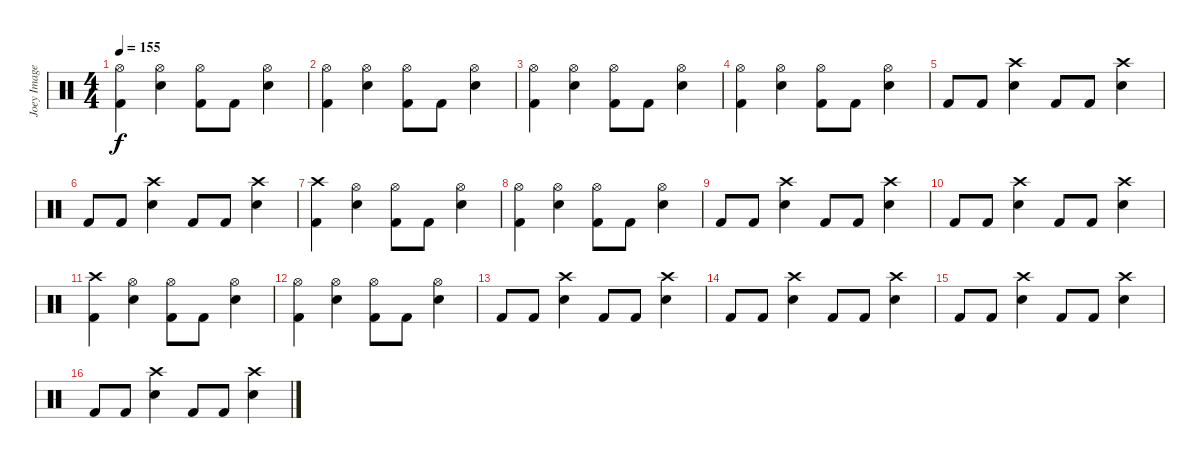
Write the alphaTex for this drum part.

\track ("Joey Image" "Joey Image") {instrument percussion}
\staff {score}
\articulation defaults
\ts (4 4)
\tempo 155
\clef neutral
\ks c
("Hi-Hat (open)" "Kick (hit) 2").4{dy f} ("Hi-Hat (open)" "Snare (hit) 2").4 ("Hi-Hat (open)" "Kick (hit) 2").8 "Kick (hit) 2".8 ("Hi-Hat (open)" "Snare (hit) 2").4 |
("Hi-Hat (open)" "Kick (hit) 2").4 ("Hi-Hat (open)" "Snare (hit) 2").4 ("Hi-Hat (open)" "Kick (hit) 2").8 "Kick (hit) 2".8 ("Hi-Hat (open)" "Snare (hit) 2").4 |
("Hi-Hat (open)" "Kick (hit) 2").4 ("Hi-Hat (open)" "Snare (hit) 2").4 ("Hi-Hat (open)" "Kick (hit) 2").8 "Kick (hit) 2".8 ("Hi-Hat (open)" "Snare (hit) 2").4 |
("Hi-Hat (open)" "Kick (hit) 2").4 ("Hi-Hat (open)" "Snare (hit) 2").4 ("Hi-Hat (open)" "Kick (hit) 2").8 "Kick (hit) 2".8 ("Hi-Hat (open)" "Snare (hit) 2").4 |
"Kick (hit) 2".8 "Kick (hit) 2".8 ("Crash high (hit)" "Snare (hit) 2").4 "Kick (hit) 2".8 "Kick (hit) 2".8 ("Crash high (hit)" "Snare (hit) 2").4 |
"Kick (hit) 2".8 "Kick (hit) 2".8 ("Crash high (hit)" "Snare (hit) 2").4 "Kick (hit) 2".8 "Kick (hit) 2".8 ("Crash high (hit)" "Snare (hit) 2").4 |
("Crash high (hit)" "Kick (hit) 2").4 ("Hi-Hat (open)" "Snare (hit) 2").4 ("Hi-Hat (open)" "Kick (hit) 2").8 "Kick (hit) 2".8 ("Hi-Hat (open)" "Snare (hit) 2").4 |
("Hi-Hat (open)" "Kick (hit) 2").4 ("Hi-Hat (open)" "Snare (hit) 2").4 ("Hi-Hat (open)" "Kick (hit) 2").8 "Kick (hit) 2".8 ("Hi-Hat (open)" "Snare (hit) 2").4 |
"Kick (hit) 2".8 "Kick (hit) 2".8 ("Crash high (hit)" "Snare (hit) 2").4 "Kick (hit) 2".8 "Kick (hit) 2".8 ("Crash high (hit)" "Snare (hit) 2").4 |
"Kick (hit) 2".8 "Kick (hit) 2".8 ("Crash high (hit)" "Snare (hit) 2").4 "Kick (hit) 2".8 "Kick (hit) 2".8 ("Crash high (hit)" "Snare (hit) 2").4 |
("Crash high (hit)" "Kick (hit) 2").4 ("Hi-Hat (open)" "Snare (hit) 2").4 ("Hi-Hat (open)" "Kick (hit) 2").8 "Kick (hit) 2".8 ("Hi-Hat (open)" "Snare (hit) 2").4 |
("Hi-Hat (open)" "Kick (hit) 2").4 ("Hi-Hat (open)" "Snare (hit) 2").4 ("Hi-Hat (open)" "Kick (hit) 2").8 "Kick (hit) 2".8 ("Hi-Hat (open)" "Snare (hit) 2").4 |
"Kick (hit) 2".8 "Kick (hit) 2".8 ("Crash high (hit)" "Snare (hit) 2").4 "Kick (hit) 2".8 "Kick (hit) 2".8 ("Crash high (hit)" "Snare (hit) 2").4 |
"Kick (hit) 2".8 "Kick (hit) 2".8 ("Crash high (hit)" "Snare (hit) 2").4 "Kick (hit) 2".8 "Kick (hit) 2".8 ("Crash high (hit)" "Snare (hit) 2").4 |
"Kick (hit) 2".8 "Kick (hit) 2".8 ("Crash high (hit)" "Snare (hit) 2").4 "Kick (hit) 2".8 "Kick (hit) 2".8 ("Crash high (hit)" "Snare (hit) 2").4 |
"Kick (hit) 2".8 "Kick (hit) 2".8 ("Crash high (hit)" "Snare (hit) 2").4 "Kick (hit) 2".8 "Kick (hit) 2".8 ("Crash high (hit)" "Snare (hit) 2").4
